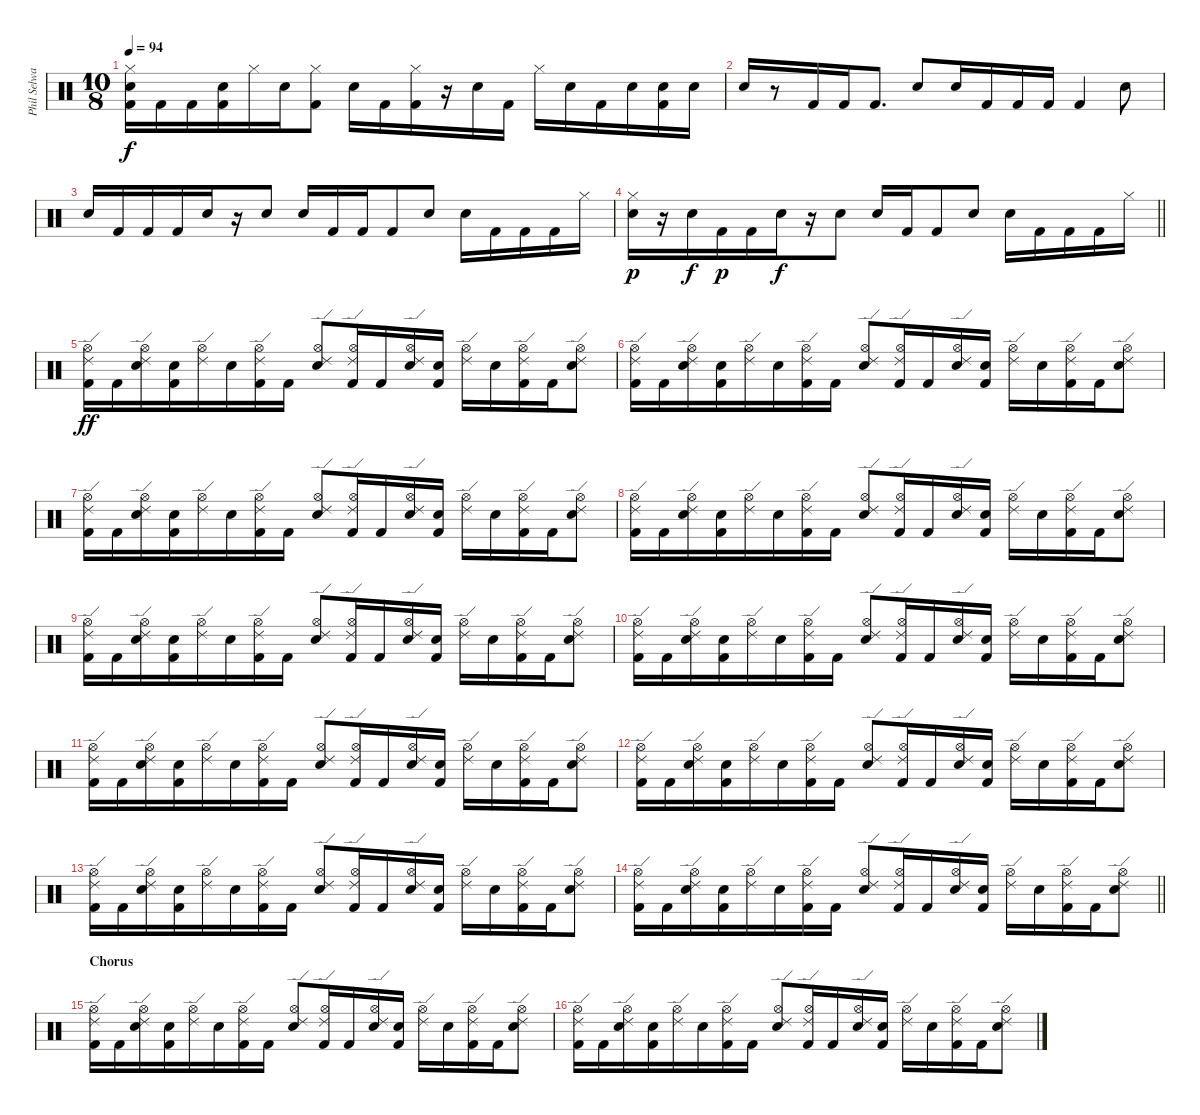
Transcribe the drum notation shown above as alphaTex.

\track ("Phil Selway" "Phil Selwa") {instrument percussion}
\staff {score}
\articulation defaults
\ts (10 8)
\tempo 94
\clef neutral
\ks c
("Hi-Hat (closed)" "Electric Snare (hit)" "Kick (hit) 2").16{dy f} "Kick (hit) 2".16 "Kick (hit) 2".16 ("Electric Snare (hit)" "Kick (hit) 2").16 "Hi-Hat (closed)".16 "Electric Snare (hit)".16 ("Hi-Hat (closed)" "Kick (hit) 2").8 "Electric Snare (hit)".16 "Kick (hit) 2".16 ("Hi-Hat (closed)" "Kick (hit) 2").16 r.16 "Electric Snare (hit)".16 "Kick (hit) 2".16 "Hi-Hat (closed)".16 "Electric Snare (hit)".16 "Kick (hit) 2".16 "Electric Snare (hit)".16 ("Electric Snare (hit)" "Kick (hit) 2").16 "Electric Snare (hit)".16 |
"Electric Snare (hit)".16 r.8 "Kick (hit) 2".16 "Kick (hit) 2".16 "Kick (hit) 2".8{d} "Electric Snare (hit)".8 "Electric Snare (hit)".16 "Kick (hit) 2".16 "Kick (hit) 2".16 "Kick (hit) 2".16 "Kick (hit) 2".4 "Electric Snare (hit)".8 |
"Electric Snare (hit)".16 "Kick (hit) 2".16 "Kick (hit) 2".16 "Kick (hit) 2".16 "Electric Snare (hit)".16 r.16 "Electric Snare (hit)".8 "Electric Snare (hit)".16 "Kick (hit) 2".16 "Kick (hit) 2".16 "Kick (hit) 2".8 "Electric Snare (hit)".8 "Electric Snare (hit)".16 "Kick (hit) 2".16 "Kick (hit) 2".16 "Kick (hit) 2".16 "Hi-Hat (closed)".16 |
\barLineRight lightlight
("Hi-Hat (closed)" "Electric Snare (hit)").16{dy p} r.16 "Electric Snare (hit)".16{dy f} "Kick (hit) 2".16{dy p} "Kick (hit) 2".16 "Electric Snare (hit)".16{dy f} r.16 "Electric Snare (hit)".8 "Electric Snare (hit)".16 "Kick (hit) 2".16 "Kick (hit) 2".8 "Electric Snare (hit)".8 "Electric Snare (hit)".16 "Kick (hit) 2".16 "Kick (hit) 2".16 "Kick (hit) 2".16 "Hi-Hat (closed)".16 |
\section ("" "")
("Hi-Hat (open)" "Ride (edge) 2" "Kick (hit) 2").16{dy ff} "Kick (hit) 2".16 ("Hi-Hat (open)" "Ride (edge) 2" "Electric Snare (hit)").16 ("Electric Snare (hit)" "Kick (hit) 2").16 ("Hi-Hat (open)" "Ride (edge) 2").16 "Electric Snare (hit)".16 ("Hi-Hat (open)" "Ride (edge) 2" "Kick (hit) 2").16 "Kick (hit) 2".16 ("Hi-Hat (open)" "Ride (edge) 2" "Electric Snare (hit)").8 ("Hi-Hat (open)" "Ride (edge) 2" "Kick (hit) 2").16 "Kick (hit) 2".16 ("Hi-Hat (open)" "Ride (edge) 2" "Electric Snare (hit)").16 ("Electric Snare (hit)" "Kick (hit) 2").16 ("Hi-Hat (open)" "Ride (edge) 2").16 "Electric Snare (hit)".16 ("Hi-Hat (open)" "Ride (edge) 2" "Kick (hit) 2").16 "Kick (hit) 2".16 ("Hi-Hat (open)" "Ride (edge) 2" "Electric Snare (hit)").8 |
("Hi-Hat (open)" "Ride (edge) 2" "Kick (hit) 2").16 "Kick (hit) 2".16 ("Hi-Hat (open)" "Ride (edge) 2" "Electric Snare (hit)").16 ("Electric Snare (hit)" "Kick (hit) 2").16 ("Hi-Hat (open)" "Ride (edge) 2").16 "Electric Snare (hit)".16 ("Hi-Hat (open)" "Ride (edge) 2" "Kick (hit) 2").16 "Kick (hit) 2".16 ("Hi-Hat (open)" "Ride (edge) 2" "Electric Snare (hit)").8 ("Hi-Hat (open)" "Ride (edge) 2" "Kick (hit) 2").16 "Kick (hit) 2".16 ("Hi-Hat (open)" "Ride (edge) 2" "Electric Snare (hit)").16 ("Electric Snare (hit)" "Kick (hit) 2").16 ("Hi-Hat (open)" "Ride (edge) 2").16 "Electric Snare (hit)".16 ("Hi-Hat (open)" "Ride (edge) 2" "Kick (hit) 2").16 "Kick (hit) 2".16 ("Hi-Hat (open)" "Ride (edge) 2" "Electric Snare (hit)").8 |
("Hi-Hat (open)" "Ride (edge) 2" "Kick (hit) 2").16 "Kick (hit) 2".16 ("Hi-Hat (open)" "Ride (edge) 2" "Electric Snare (hit)").16 ("Electric Snare (hit)" "Kick (hit) 2").16 ("Hi-Hat (open)" "Ride (edge) 2").16 "Electric Snare (hit)".16 ("Hi-Hat (open)" "Ride (edge) 2" "Kick (hit) 2").16 "Kick (hit) 2".16 ("Hi-Hat (open)" "Ride (edge) 2" "Electric Snare (hit)").8 ("Hi-Hat (open)" "Ride (edge) 2" "Kick (hit) 2").16 "Kick (hit) 2".16 ("Hi-Hat (open)" "Ride (edge) 2" "Electric Snare (hit)").16 ("Electric Snare (hit)" "Kick (hit) 2").16 ("Hi-Hat (open)" "Ride (edge) 2").16 "Electric Snare (hit)".16 ("Hi-Hat (open)" "Ride (edge) 2" "Kick (hit) 2").16 "Kick (hit) 2".16 ("Hi-Hat (open)" "Ride (edge) 2" "Electric Snare (hit)").8 |
("Hi-Hat (open)" "Ride (edge) 2" "Kick (hit) 2").16 "Kick (hit) 2".16 ("Hi-Hat (open)" "Ride (edge) 2" "Electric Snare (hit)").16 ("Electric Snare (hit)" "Kick (hit) 2").16 ("Hi-Hat (open)" "Ride (edge) 2").16 "Electric Snare (hit)".16 ("Hi-Hat (open)" "Ride (edge) 2" "Kick (hit) 2").16 "Kick (hit) 2".16 ("Hi-Hat (open)" "Ride (edge) 2" "Electric Snare (hit)").8 ("Hi-Hat (open)" "Ride (edge) 2" "Kick (hit) 2").16 "Kick (hit) 2".16 ("Hi-Hat (open)" "Ride (edge) 2" "Electric Snare (hit)").16 ("Electric Snare (hit)" "Kick (hit) 2").16 ("Hi-Hat (open)" "Ride (edge) 2").16 "Electric Snare (hit)".16 ("Hi-Hat (open)" "Ride (edge) 2" "Kick (hit) 2").16 "Kick (hit) 2".16 ("Hi-Hat (open)" "Ride (edge) 2" "Electric Snare (hit)").8 |
("Hi-Hat (open)" "Ride (edge) 2" "Kick (hit) 2").16 "Kick (hit) 2".16 ("Hi-Hat (open)" "Ride (edge) 2" "Electric Snare (hit)").16 ("Electric Snare (hit)" "Kick (hit) 2").16 ("Hi-Hat (open)" "Ride (edge) 2").16 "Electric Snare (hit)".16 ("Hi-Hat (open)" "Ride (edge) 2" "Kick (hit) 2").16 "Kick (hit) 2".16 ("Hi-Hat (open)" "Ride (edge) 2" "Electric Snare (hit)").8 ("Hi-Hat (open)" "Ride (edge) 2" "Kick (hit) 2").16 "Kick (hit) 2".16 ("Hi-Hat (open)" "Ride (edge) 2" "Electric Snare (hit)").16 ("Electric Snare (hit)" "Kick (hit) 2").16 ("Hi-Hat (open)" "Ride (edge) 2").16 "Electric Snare (hit)".16 ("Hi-Hat (open)" "Ride (edge) 2" "Kick (hit) 2").16 "Kick (hit) 2".16 ("Hi-Hat (open)" "Ride (edge) 2" "Electric Snare (hit)").8 |
("Hi-Hat (open)" "Ride (edge) 2" "Kick (hit) 2").16 "Kick (hit) 2".16 ("Hi-Hat (open)" "Ride (edge) 2" "Electric Snare (hit)").16 ("Electric Snare (hit)" "Kick (hit) 2").16 ("Hi-Hat (open)" "Ride (edge) 2").16 "Electric Snare (hit)".16 ("Hi-Hat (open)" "Ride (edge) 2" "Kick (hit) 2").16 "Kick (hit) 2".16 ("Hi-Hat (open)" "Ride (edge) 2" "Electric Snare (hit)").8 ("Hi-Hat (open)" "Ride (edge) 2" "Kick (hit) 2").16 "Kick (hit) 2".16 ("Hi-Hat (open)" "Ride (edge) 2" "Electric Snare (hit)").16 ("Electric Snare (hit)" "Kick (hit) 2").16 ("Hi-Hat (open)" "Ride (edge) 2").16 "Electric Snare (hit)".16 ("Hi-Hat (open)" "Ride (edge) 2" "Kick (hit) 2").16 "Kick (hit) 2".16 ("Hi-Hat (open)" "Ride (edge) 2" "Electric Snare (hit)").8 |
("Hi-Hat (open)" "Ride (edge) 2" "Kick (hit) 2").16 "Kick (hit) 2".16 ("Hi-Hat (open)" "Ride (edge) 2" "Electric Snare (hit)").16 ("Electric Snare (hit)" "Kick (hit) 2").16 ("Hi-Hat (open)" "Ride (edge) 2").16 "Electric Snare (hit)".16 ("Hi-Hat (open)" "Ride (edge) 2" "Kick (hit) 2").16 "Kick (hit) 2".16 ("Hi-Hat (open)" "Ride (edge) 2" "Electric Snare (hit)").8 ("Hi-Hat (open)" "Ride (edge) 2" "Kick (hit) 2").16 "Kick (hit) 2".16 ("Hi-Hat (open)" "Ride (edge) 2" "Electric Snare (hit)").16 ("Electric Snare (hit)" "Kick (hit) 2").16 ("Hi-Hat (open)" "Ride (edge) 2").16 "Electric Snare (hit)".16 ("Hi-Hat (open)" "Ride (edge) 2" "Kick (hit) 2").16 "Kick (hit) 2".16 ("Hi-Hat (open)" "Ride (edge) 2" "Electric Snare (hit)").8 |
("Hi-Hat (open)" "Ride (edge) 2" "Kick (hit) 2").16 "Kick (hit) 2".16 ("Hi-Hat (open)" "Ride (edge) 2" "Electric Snare (hit)").16 ("Electric Snare (hit)" "Kick (hit) 2").16 ("Hi-Hat (open)" "Ride (edge) 2").16 "Electric Snare (hit)".16 ("Hi-Hat (open)" "Ride (edge) 2" "Kick (hit) 2").16 "Kick (hit) 2".16 ("Hi-Hat (open)" "Ride (edge) 2" "Electric Snare (hit)").8 ("Hi-Hat (open)" "Ride (edge) 2" "Kick (hit) 2").16 "Kick (hit) 2".16 ("Hi-Hat (open)" "Ride (edge) 2" "Electric Snare (hit)").16 ("Electric Snare (hit)" "Kick (hit) 2").16 ("Hi-Hat (open)" "Ride (edge) 2").16 "Electric Snare (hit)".16 ("Hi-Hat (open)" "Ride (edge) 2" "Kick (hit) 2").16 "Kick (hit) 2".16 ("Hi-Hat (open)" "Ride (edge) 2" "Electric Snare (hit)").8 |
("Hi-Hat (open)" "Ride (edge) 2" "Kick (hit) 2").16 "Kick (hit) 2".16 ("Hi-Hat (open)" "Ride (edge) 2" "Electric Snare (hit)").16 ("Electric Snare (hit)" "Kick (hit) 2").16 ("Hi-Hat (open)" "Ride (edge) 2").16 "Electric Snare (hit)".16 ("Hi-Hat (open)" "Ride (edge) 2" "Kick (hit) 2").16 "Kick (hit) 2".16 ("Hi-Hat (open)" "Ride (edge) 2" "Electric Snare (hit)").8 ("Hi-Hat (open)" "Ride (edge) 2" "Kick (hit) 2").16 "Kick (hit) 2".16 ("Hi-Hat (open)" "Ride (edge) 2" "Electric Snare (hit)").16 ("Electric Snare (hit)" "Kick (hit) 2").16 ("Hi-Hat (open)" "Ride (edge) 2").16 "Electric Snare (hit)".16 ("Hi-Hat (open)" "Ride (edge) 2" "Kick (hit) 2").16 "Kick (hit) 2".16 ("Hi-Hat (open)" "Ride (edge) 2" "Electric Snare (hit)").8 |
\barLineRight lightlight
("Hi-Hat (open)" "Ride (edge) 2" "Kick (hit) 2").16 "Kick (hit) 2".16 ("Hi-Hat (open)" "Ride (edge) 2" "Electric Snare (hit)").16 ("Electric Snare (hit)" "Kick (hit) 2").16 ("Hi-Hat (open)" "Ride (edge) 2").16 "Electric Snare (hit)".16 ("Hi-Hat (open)" "Ride (edge) 2" "Kick (hit) 2").16 "Kick (hit) 2".16 ("Hi-Hat (open)" "Ride (edge) 2" "Electric Snare (hit)").8 ("Hi-Hat (open)" "Ride (edge) 2" "Kick (hit) 2").16 "Kick (hit) 2".16 ("Hi-Hat (open)" "Ride (edge) 2" "Electric Snare (hit)").16 ("Electric Snare (hit)" "Kick (hit) 2").16 ("Hi-Hat (open)" "Ride (edge) 2").16 "Electric Snare (hit)".16 ("Hi-Hat (open)" "Ride (edge) 2" "Kick (hit) 2").16 "Kick (hit) 2".16 ("Hi-Hat (open)" "Ride (edge) 2" "Electric Snare (hit)").8 |
\section ("" "Chorus")
("Hi-Hat (open)" "Ride (edge) 2" "Kick (hit) 2").16 "Kick (hit) 2".16 ("Hi-Hat (open)" "Ride (edge) 2" "Electric Snare (hit)").16 ("Electric Snare (hit)" "Kick (hit) 2").16 ("Hi-Hat (open)" "Ride (edge) 2").16 "Electric Snare (hit)".16 ("Hi-Hat (open)" "Ride (edge) 2" "Kick (hit) 2").16 "Kick (hit) 2".16 ("Hi-Hat (open)" "Ride (edge) 2" "Electric Snare (hit)").8 ("Hi-Hat (open)" "Ride (edge) 2" "Kick (hit) 2").16 "Kick (hit) 2".16 ("Hi-Hat (open)" "Ride (edge) 2" "Electric Snare (hit)").16 ("Electric Snare (hit)" "Kick (hit) 2").16 ("Hi-Hat (open)" "Ride (edge) 2").16 "Electric Snare (hit)".16 ("Hi-Hat (open)" "Ride (edge) 2" "Kick (hit) 2").16 "Kick (hit) 2".16 ("Hi-Hat (open)" "Ride (edge) 2" "Electric Snare (hit)").8 |
("Hi-Hat (open)" "Ride (edge) 2" "Kick (hit) 2").16 "Kick (hit) 2".16 ("Hi-Hat (open)" "Ride (edge) 2" "Electric Snare (hit)").16 ("Electric Snare (hit)" "Kick (hit) 2").16 ("Hi-Hat (open)" "Ride (edge) 2").16 "Electric Snare (hit)".16 ("Hi-Hat (open)" "Ride (edge) 2" "Kick (hit) 2").16 "Kick (hit) 2".16 ("Hi-Hat (open)" "Ride (edge) 2" "Electric Snare (hit)").8 ("Hi-Hat (open)" "Ride (edge) 2" "Kick (hit) 2").16 "Kick (hit) 2".16 ("Hi-Hat (open)" "Ride (edge) 2" "Electric Snare (hit)").16 ("Electric Snare (hit)" "Kick (hit) 2").16 ("Hi-Hat (open)" "Ride (edge) 2").16 "Electric Snare (hit)".16 ("Hi-Hat (open)" "Ride (edge) 2" "Kick (hit) 2").16 "Kick (hit) 2".16 ("Hi-Hat (open)" "Ride (edge) 2" "Electric Snare (hit)").8
